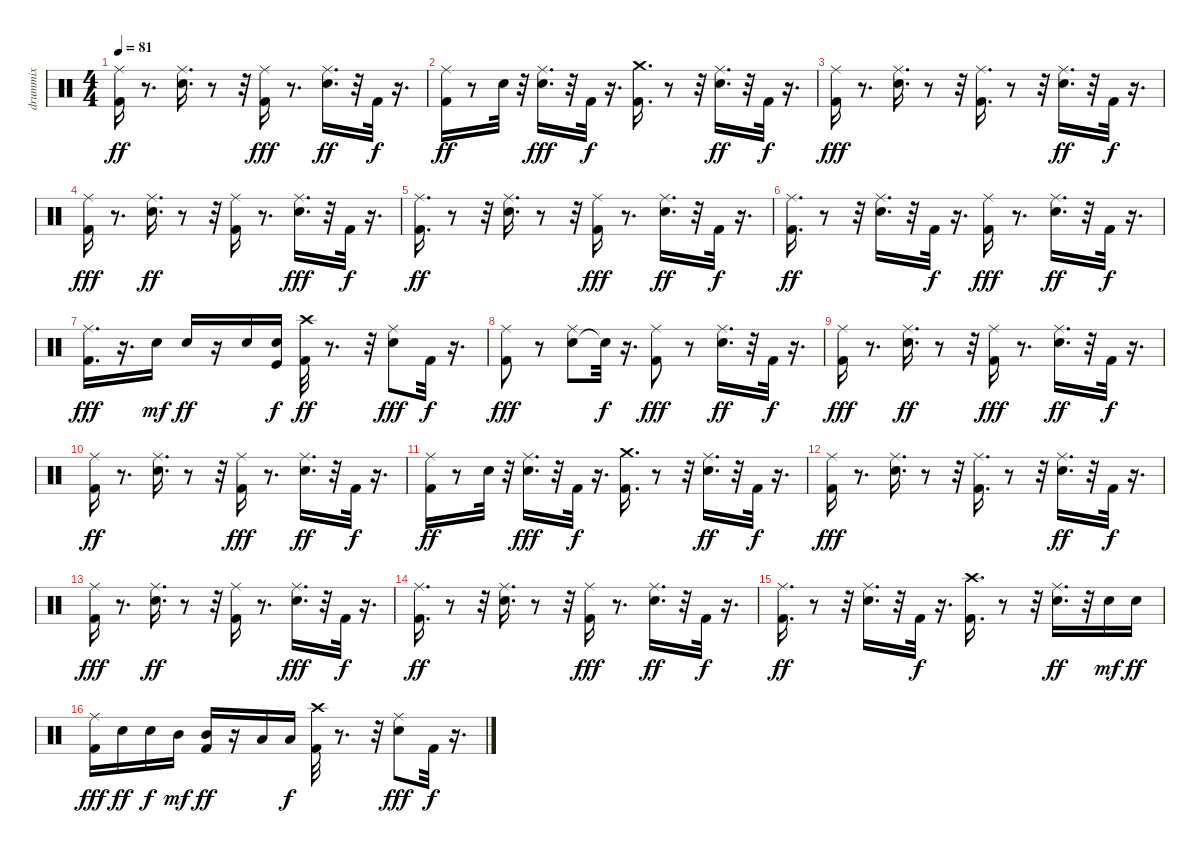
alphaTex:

\track ("drummix " "drummix ") {instrument percussion}
\staff {score}
\articulation defaults
\ts (4 4)
\tempo 81
\clef neutral
\ks c
("Kick (hit) 2" "Ride (middle)").16{dy ff} r.8{d} ("Snare (hit) 2" "Ride (middle)").16{d} r.8 r.32 ("Kick (hit) 2" "Ride (middle)").16{dy fff} r.8{d} ("Snare (hit) 2" "Ride (middle)").16{d dy ff} r.32 "Kick (hit) 2".32{dy f} r.16{d} |
("Kick (hit) 2" "Ride (middle)").16{dy ff} r.8 "Snare (hit) 2".32 r.32 ("Snare (hit) 2" "Ride (middle)").16{d dy fff} r.32 "Kick (hit) 2".32{dy f} r.16{d} ("Kick (hit) 2" "Crash medium (hit)").16{d} r.8 r.32 ("Snare (hit) 2" "Ride (middle)").16{d dy ff} r.32 "Kick (hit) 2".32{dy f} r.16{d} |
("Kick (hit) 2" "Ride (middle)").16{dy fff} r.8{d} ("Snare (hit) 2" "Ride (middle)").16{d} r.8 r.32 ("Kick (hit) 2" "Ride (middle)").16{d} r.8 r.32 ("Snare (hit) 2" "Ride (middle)").16{d dy ff} r.32 "Kick (hit) 2".32{dy f} r.16{d} |
("Kick (hit) 2" "Ride (middle)").16{dy fff} r.8{d} ("Snare (hit) 2" "Ride (middle)").16{d dy ff} r.8 r.32 ("Kick (hit) 2" "Ride (middle)").16 r.8{d} ("Snare (hit) 2" "Ride (middle)").16{d dy fff} r.32 "Kick (hit) 2".32{dy f} r.16{d} |
("Kick (hit) 2" "Ride (middle)").16{d dy ff} r.8 r.32 ("Snare (hit) 2" "Ride (middle)").16{d} r.8 r.32 ("Kick (hit) 2" "Ride (middle)").16{dy fff} r.8{d} ("Snare (hit) 2" "Ride (middle)").16{d dy ff} r.32 "Kick (hit) 2".32{dy f} r.16{d} |
("Kick (hit) 2" "Ride (middle)").16{d dy ff} r.8 r.32 ("Snare (hit) 2" "Ride (middle)").16{d} r.32 "Kick (hit) 2".32{dy f} r.16{d} ("Kick (hit) 2" "Ride (middle)").16{dy fff} r.8{d} ("Snare (hit) 2" "Ride (middle)").16{d dy ff} r.32 "Kick (hit) 2".32{dy f} r.16{d} |
("Kick (hit) 2" "Ride (middle)").16{d dy fff} r.16{d} "Snare (hit) 2".16{dy mf} "Snare (hit) 2".16{dy ff} r.16 "Snare (hit) 2".16 ("Kick (hit)" "Snare (hit) 2").16{dy f} ("Kick (hit) 2" "Crash high (hit)").32{dy ff} r.8{d} r.32 ("Snare (hit) 2" "Ride (middle)").8{dy fff} "Kick (hit) 2".32{dy f} r.16{d} |
("Kick (hit) 2" "Ride (middle)").8{dy fff} r.8 ("Snare (hit) 2" "Ride (middle)").8 "Snare (hit)"{t}.32{dy f} r.16{d} ("Kick (hit) 2" "Ride (middle)").8{dy fff} r.8 ("Snare (hit) 2" "Ride (middle)").16{d dy ff} r.32 "Kick (hit) 2".32{dy f} r.16{d} |
("Kick (hit) 2" "Ride (middle)").16{dy fff} r.8{d} ("Snare (hit) 2" "Ride (middle)").16{d dy ff} r.8 r.32 ("Kick (hit) 2" "Ride (middle)").16{dy fff} r.8{d} ("Snare (hit) 2" "Ride (middle)").16{d dy ff} r.32 "Kick (hit) 2".32{dy f} r.16{d} |
("Kick (hit) 2" "Ride (middle)").16{dy ff} r.8{d} ("Snare (hit) 2" "Ride (middle)").16{d} r.8 r.32 ("Kick (hit) 2" "Ride (middle)").16{dy fff} r.8{d} ("Snare (hit) 2" "Ride (middle)").16{d dy ff} r.32 "Kick (hit) 2".32{dy f} r.16{d} |
("Kick (hit) 2" "Ride (middle)").16{dy ff} r.8 "Snare (hit) 2".32 r.32 ("Snare (hit) 2" "Ride (middle)").16{d dy fff} r.32 "Kick (hit) 2".32{dy f} r.16{d} ("Kick (hit) 2" "Crash medium (hit)").16{d} r.8 r.32 ("Snare (hit) 2" "Ride (middle)").16{d dy ff} r.32 "Kick (hit) 2".32{dy f} r.16{d} |
("Kick (hit) 2" "Ride (middle)").16{dy fff} r.8{d} ("Snare (hit) 2" "Ride (middle)").16{d} r.8 r.32 ("Kick (hit) 2" "Ride (middle)").16{d} r.8 r.32 ("Snare (hit) 2" "Ride (middle)").16{d dy ff} r.32 "Kick (hit) 2".32{dy f} r.16{d} |
("Kick (hit) 2" "Ride (middle)").16{dy fff} r.8{d} ("Snare (hit) 2" "Ride (middle)").16{d dy ff} r.8 r.32 ("Kick (hit) 2" "Ride (middle)").16 r.8{d} ("Snare (hit) 2" "Ride (middle)").16{d dy fff} r.32 "Kick (hit) 2".32{dy f} r.16{d} |
("Kick (hit) 2" "Ride (middle)").16{d dy ff} r.8 r.32 ("Snare (hit) 2" "Ride (middle)").16{d} r.8 r.32 ("Kick (hit) 2" "Ride (middle)").16{dy fff} r.8{d} ("Snare (hit) 2" "Ride (middle)").16{d dy ff} r.32 "Kick (hit) 2".32{dy f} r.16{d} |
("Kick (hit) 2" "Ride (middle)").16{d dy ff} r.8 r.32 ("Snare (hit) 2" "Ride (middle)").16{d} r.32 "Kick (hit) 2".32{dy f} r.16{d} ("Kick (hit) 2" "Crash high (hit)").16{d} r.8 r.32 ("Snare (hit) 2" "Ride (middle)").16{d dy ff} r.32 "Snare (hit) 2".16{dy mf} "Snare (hit) 2".16{dy ff} |
("Kick (hit) 2" "Ride (middle)").16{dy fff} "Snare (hit) 2".16{dy ff} "Snare (hit) 2".16{dy f} "Mid Tom (hit)".16{dy mf} ("Kick (hit) 2" "Mid Tom (hit)").16{dy ff} r.16 "Low Tom (hit)".16 "Low Tom (hit)".16{dy f} ("Kick (hit) 2" "Crash high (hit)").32 r.8{d} r.32 ("Snare (hit) 2" "Ride (middle)").8{dy fff} "Kick (hit) 2".32{dy f} r.16{d}
